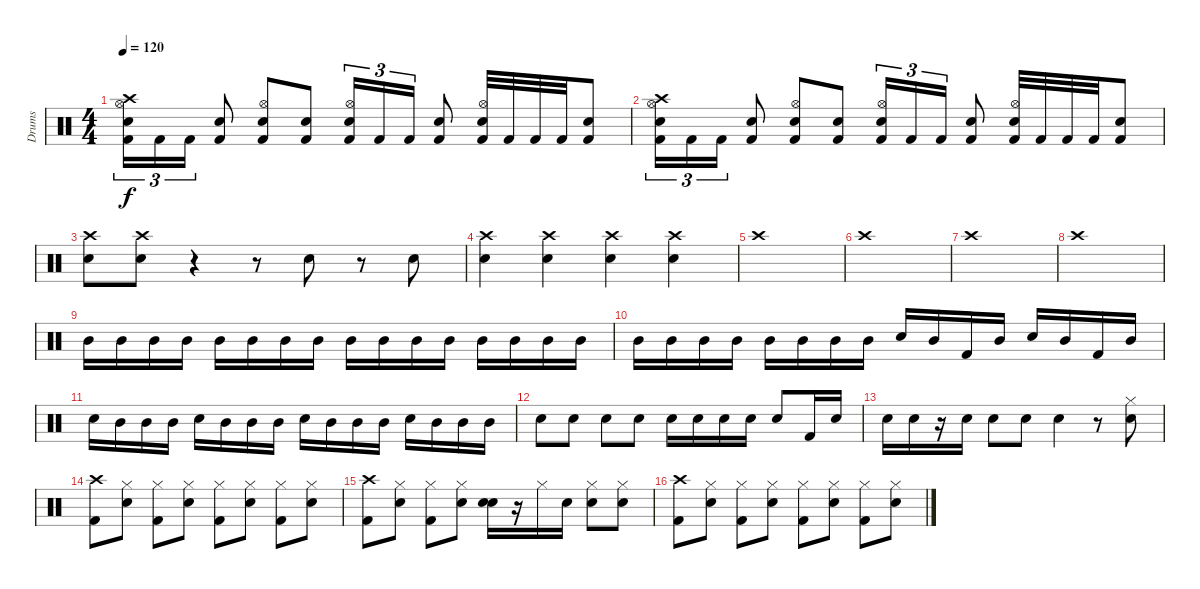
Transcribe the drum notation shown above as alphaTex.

\track ("Drums" "Drums") {instrument percussion}
\staff {score}
\articulation defaults
\ts (4 4)
\tempo 120
\clef neutral
\ks c
("Crash high (hit)" "Kick (hit) 2" "Hi-Hat (open)" "Hand Clap (hit)").16{tu (3 2) dy f} "Kick (hit) 2".16{tu (3 2)} "Kick (hit) 2".16{tu (3 2)} ("Electric Snare (hit)" "Kick (hit) 2").8 ("Kick (hit) 2" "Hi-Hat (open)" "Hand Clap (hit)").8 ("Electric Snare (hit)" "Kick (hit) 2").8 ("Kick (hit) 2" "Hi-Hat (open)" "Hand Clap (hit)").16{tu (3 2)} "Kick (hit) 2".16{tu (3 2)} "Kick (hit) 2".16{tu (3 2)} ("Electric Snare (hit)" "Kick (hit) 2").8 ("Hi-Hat (open)" "Kick (hit) 2" "Hand Clap (hit)").32 "Kick (hit) 2".32 "Kick (hit) 2".32 "Kick (hit) 2".32 ("Electric Snare (hit)" "Kick (hit) 2").8 |
("Crash high (hit)" "Kick (hit) 2" "Hi-Hat (open)" "Hand Clap (hit)").16{tu (3 2)} "Kick (hit) 2".16{tu (3 2)} "Kick (hit) 2".16{tu (3 2)} ("Electric Snare (hit)" "Kick (hit) 2").8 ("Kick (hit) 2" "Hi-Hat (open)" "Hand Clap (hit)").8 ("Electric Snare (hit)" "Kick (hit) 2").8 ("Kick (hit) 2" "Hi-Hat (open)" "Hand Clap (hit)").16{tu (3 2)} "Kick (hit) 2".16{tu (3 2)} "Kick (hit) 2".16{tu (3 2)} ("Electric Snare (hit)" "Kick (hit) 2").8 ("Hi-Hat (open)" "Kick (hit) 2" "Hand Clap (hit)").32 "Kick (hit) 2".32 "Kick (hit) 2".32 "Kick (hit) 2".32 ("Electric Snare (hit)" "Kick (hit) 2").8 |
("Crash high (hit)" "Electric Snare (hit)").8 ("Crash high (hit)" "Electric Snare (hit)").8 r.4 r.8 "Electric Snare (hit)".8 r.8 "Electric Snare (hit)".8 |
("Crash high (hit)" "Electric Snare (hit)").4 ("Crash high (hit)" "Electric Snare (hit)").4 ("Crash high (hit)" "Electric Snare (hit)").4 ("Crash high (hit)" "Electric Snare (hit)").4 |
"Crash high (hit)".1 |
"Crash high (hit)".1 |
"Crash high (hit)".1 |
"Crash high (hit)".1 |
"Mid Tom (hit)".16 "Mid Tom (hit)".16 "Mid Tom (hit)".16 "Mid Tom (hit)".16 "Mid Tom (hit)".16 "Mid Tom (hit)".16 "Mid Tom (hit)".16 "Mid Tom (hit)".16 "Mid Tom (hit)".16 "Mid Tom (hit)".16 "Mid Tom (hit)".16 "Mid Tom (hit)".16 "Mid Tom (hit)".16 "Mid Tom (hit)".16 "Mid Tom (hit)".16 "Mid Tom (hit)".16 |
"Mid Tom (hit)".16 "Mid Tom (hit)".16 "Mid Tom (hit)".16 "Mid Tom (hit)".16 "Mid Tom (hit)".16 "Mid Tom (hit)".16 "Mid Tom (hit)".16 "Mid Tom (hit)".16 "Electric Snare (hit)".16 "Mid Tom (hit)".16 "Kick (hit) 2".16 "Mid Tom (hit)".16 "Electric Snare (hit)".16 "Mid Tom (hit)".16 "Kick (hit) 2".16 "Mid Tom (hit)".16 |
"Electric Snare (hit)".16 "Mid Tom (hit)".16 "Mid Tom (hit)".16 "Mid Tom (hit)".16 "Electric Snare (hit)".16 "Mid Tom (hit)".16 "Mid Tom (hit)".16 "Mid Tom (hit)".16 "Electric Snare (hit)".16 "Mid Tom (hit)".16 "Mid Tom (hit)".16 "Mid Tom (hit)".16 "Electric Snare (hit)".16 "Mid Tom (hit)".16 "Mid Tom (hit)".16 "Mid Tom (hit)".16 |
"Electric Snare (hit)".8 "Electric Snare (hit)".8 "Electric Snare (hit)".8 "Electric Snare (hit)".8 "Electric Snare (hit)".16 "Electric Snare (hit)".16 "Electric Snare (hit)".16 "Electric Snare (hit)".16 "Electric Snare (hit)".8 "Kick (hit) 2".16 "Electric Snare (hit)".16 |
"Electric Snare (hit)".16 "Electric Snare (hit)".16 r.16 "Electric Snare (hit)".16 "Electric Snare (hit)".8 "Electric Snare (hit)".8 "Electric Snare (hit)".4 r.8 ("Electric Snare (hit)" "Hi-Hat (closed)").8 |
("Crash high (hit)" "Kick (hit) 2").8 ("Hi-Hat (closed)" "Electric Snare (hit)").8 ("Hi-Hat (closed)" "Kick (hit) 2").8 ("Hi-Hat (closed)" "Electric Snare (hit)").8 ("Hi-Hat (closed)" "Kick (hit) 2").8 ("Hi-Hat (closed)" "Electric Snare (hit)").8 ("Hi-Hat (closed)" "Kick (hit) 2").8 ("Hi-Hat (closed)" "Electric Snare (hit)").8 |
("Crash high (hit)" "Kick (hit) 2").8 ("Hi-Hat (closed)" "Electric Snare (hit)").8 ("Hi-Hat (closed)" "Kick (hit) 2").8 ("Hi-Hat (closed)" "Electric Snare (hit)").8 ("Electric Snare (hit)" "Electric Snare (hit)").16 r.16 "Hi-Hat (closed)".16 "Electric Snare (hit)".16 ("Hi-Hat (closed)" "Electric Snare (hit)").8 ("Hi-Hat (closed)" "Electric Snare (hit)").8 |
("Crash high (hit)" "Kick (hit) 2").8 ("Hi-Hat (closed)" "Electric Snare (hit)").8 ("Hi-Hat (closed)" "Kick (hit) 2").8 ("Hi-Hat (closed)" "Electric Snare (hit)").8 ("Hi-Hat (closed)" "Kick (hit) 2").8 ("Hi-Hat (closed)" "Electric Snare (hit)").8 ("Hi-Hat (closed)" "Kick (hit) 2").8 ("Hi-Hat (closed)" "Electric Snare (hit)").8
